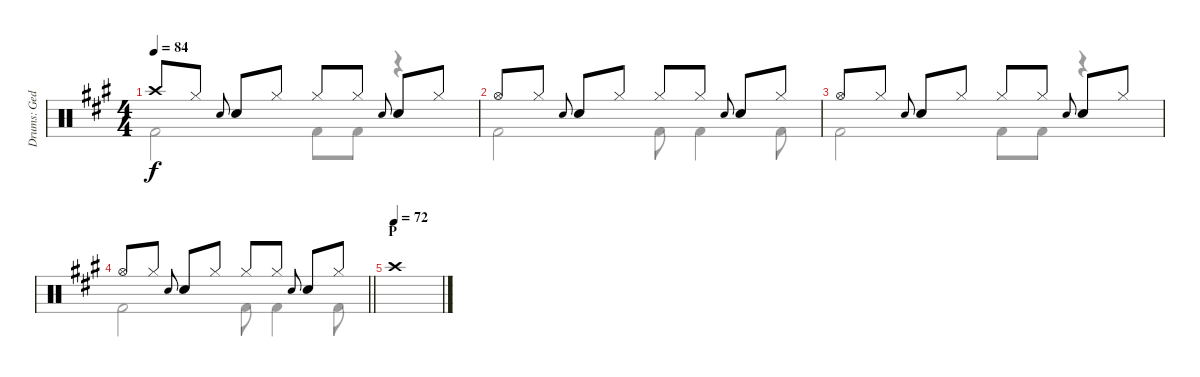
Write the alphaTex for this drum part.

\track ("Drums: Ged Lynch" "Drums: Ged") {instrument percussion}
\staff {score}
\articulation defaults
\voice
\ts (4 4)
\tempo 84
\clef neutral
\ks a "Crash high (hit)".8{dy f} "Hi-Hat (closed)".8 "Snare (hit) 2".8{gr onbeat beam merge} "Electric Snare (hit)".8 "Hi-Hat (closed)".8 "Hi-Hat (closed)".8 "Hi-Hat (closed)".8 "Snare (hit) 2".8{gr onbeat beam merge} "Electric Snare (hit)".8 "Hi-Hat (closed)".8
|
"Hi-Hat (open)".8 "Hi-Hat (closed)".8 "Snare (hit) 2".8{gr onbeat beam merge} "Electric Snare (hit)".8 "Hi-Hat (closed)".8 "Hi-Hat (closed)".8 "Hi-Hat (closed)".8 "Snare (hit) 2".8{gr onbeat beam merge} "Electric Snare (hit)".8 "Hi-Hat (closed)".8 |
"Hi-Hat (open)".8 "Hi-Hat (closed)".8 "Snare (hit) 2".8{gr onbeat beam merge} "Electric Snare (hit)".8 "Hi-Hat (closed)".8 "Hi-Hat (closed)".8 "Hi-Hat (closed)".8 "Snare (hit) 2".8{gr onbeat beam merge} "Electric Snare (hit)".8 "Hi-Hat (closed)".8 |
\barLineRight lightlight "Hi-Hat (open)".8 "Hi-Hat (closed)".8 "Snare (hit) 2".8{gr onbeat beam merge} "Electric Snare (hit)".8 "Hi-Hat (closed)".8 "Hi-Hat (closed)".8 "Hi-Hat (closed)".8 "Snare (hit) 2".8{gr onbeat beam merge} "Electric Snare (hit)".8 "Hi-Hat (closed)".8
|
\section ("" "P")
\tempo (72)
"Crash high (hit)".1{volume 0} |
|
|
\voice
\clef neutral
\ottava regular
\simile none
\ks a "Kick (hit) 2".2{dy f} "Kick (hit) 2".8 "Kick (hit) 2".8
r.4 |
"Kick (hit) 2".2 "Kick (hit) 2".8 "Kick (hit) 2".4 "Kick (hit) 2".8 |
"Kick (hit) 2".2 "Kick (hit) 2".8 "Kick (hit) 2".8 r.4 |
\barLineRight lightlight "Kick (hit) 2".2 "Kick (hit) 2".8 "Kick (hit) 2".4 "Kick (hit) 2".8
|
|
|
|
